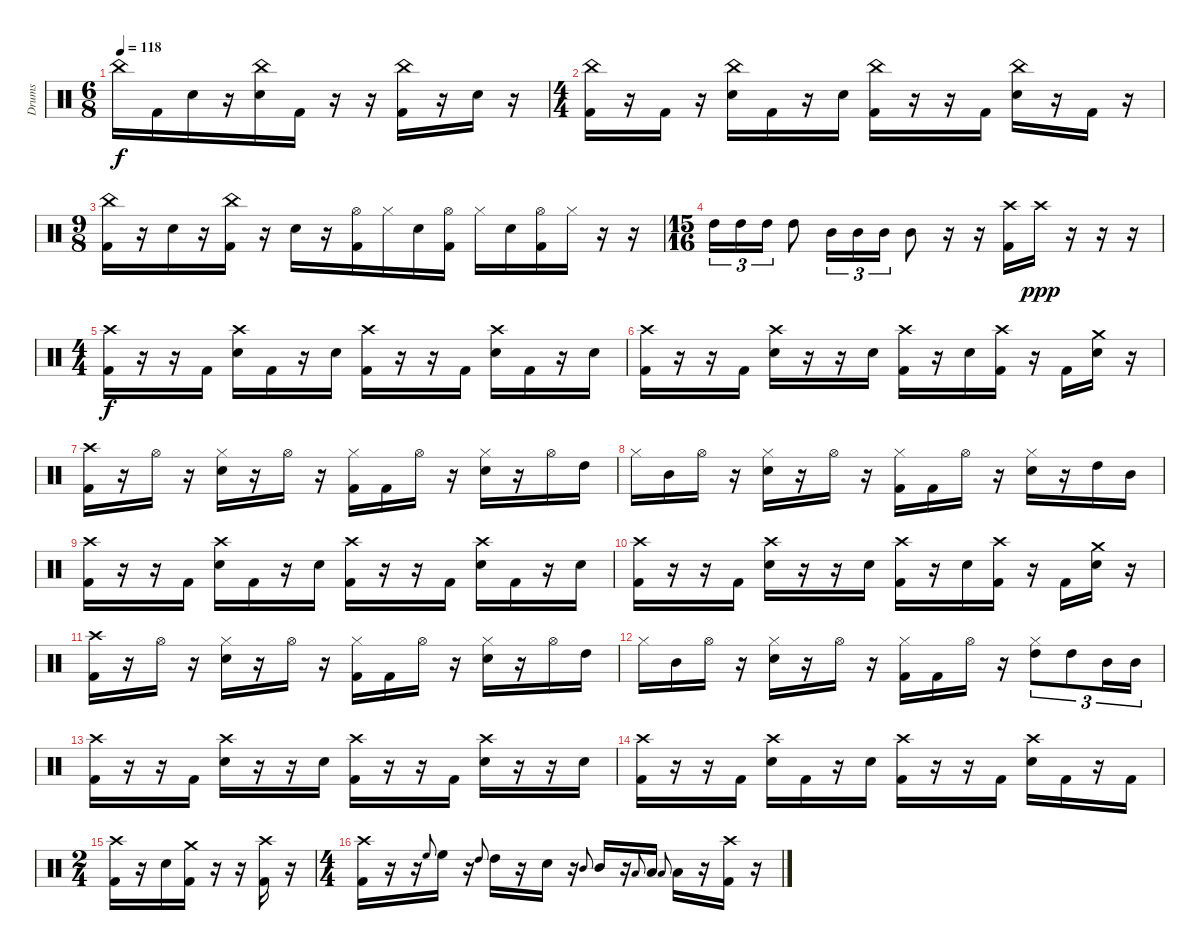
\track ("Drums" "Drums") {instrument percussion}
\staff {score}
\articulation defaults
\ts (6 8)
\tempo 118
\clef neutral
\ks c "China (hit)".16{dy f} "Kick (hit) 2".16 "Snare (hit) 2".16
r.16 ("Snare (hit) 2" "China (hit)").16 "Kick (hit) 2".16 r.16 r.16 ("Kick (hit) 2" "China (hit)").16 r.16 "Snare (hit) 2".16 r.16 |
\ts (4 4)
("Kick (hit) 2" "China (hit)").16 r.16 "Kick (hit) 2".16 r.16 ("Snare (hit) 2" "China (hit)").16 "Kick (hit) 2".16 r.16 "Snare (hit) 2".16 ("Kick (hit) 2" "China (hit)").16 r.16 r.16 "Kick (hit) 2".16 ("Snare (hit) 2" "China (hit)").16 r.16 "Kick (hit) 2".16 r.16 |
\ts (9 8)
("Kick (hit) 2" "China (hit)").16 r.16 "Snare (hit) 2".16 r.16 ("Kick (hit) 2" "China (hit)").16 r.16 "Snare (hit) 2".16 r.16 ("Kick (hit) 2" "Hi-Hat (open)").16 "Hi-Hat (closed)".16 "Snare (hit) 2".16 ("Hi-Hat (open)" "Kick (hit) 2").16 "Hi-Hat (closed)".16 "Snare (hit) 2".16 ("Hi-Hat (open)" "Kick (hit) 2").16 "Hi-Hat (closed)".16 r.16 r.16 |
\ts (15 16)
"High Tom (hit)".16{tu (3 2)} "High Tom (hit)".16{tu (3 2)} "High Tom (hit)".16{tu (3 2)} "High Tom (hit)".8 "Mid Tom (hit)".16{tu (3 2)} "Mid Tom (hit)".16{tu (3 2)} "Mid Tom (hit)".16{tu (3 2)} "Mid Tom (hit)".8 r.16 r.16 ("Kick (hit) 2" "Crash high (hit)").16 "Crash high (hit)".16{dy ppp} r.16 r.16 r.16 |
\ts (4 4)
("Kick (hit) 2" "Crash high (hit)").16{dy f} r.16 r.16 "Kick (hit) 2".16 ("Snare (hit) 2" "Crash high (hit)").16 "Kick (hit) 2".16 r.16 "Snare (hit) 2".16 ("Kick (hit) 2" "Crash high (hit)").16 r.16 r.16 "Kick (hit) 2".16 ("Snare (hit) 2" "Crash high (hit)").16 "Kick (hit) 2".16 r.16 "Snare (hit) 2".16 |
("Kick (hit) 2" "Crash high (hit)").16 r.16 r.16 "Kick (hit) 2".16 ("Snare (hit) 2" "Crash high (hit)").16 r.16 r.16 "Snare (hit) 2".16 ("Kick (hit) 2" "Crash high (hit)").16 r.16 "Snare (hit) 2".16 ("Kick (hit) 2" "Crash high (hit)").16 r.16 "Kick (hit) 2".16 ("Snare (hit) 2" "Crash medium (hit)").16 r.16 |
("Kick (hit) 2" "Crash high (hit)").16 r.16 "Hi-Hat (open)".16 r.16 ("Hi-Hat (closed)" "Snare (hit) 2").16 r.16 "Hi-Hat (open)".16 r.16 ("Hi-Hat (closed)" "Kick (hit) 2").16 "Kick (hit) 2".16 "Hi-Hat (open)".16 r.16 ("Snare (hit) 2" "Hi-Hat (closed)").16 r.16 "Hi-Hat (open)".16 "High Tom (hit)".16 |
"Hi-Hat (closed)".16 "Mid Tom (hit)".16 "Hi-Hat (open)".16 r.16 ("Hi-Hat (closed)" "Snare (hit) 2").16 r.16 "Hi-Hat (open)".16 r.16 ("Hi-Hat (closed)" "Kick (hit) 2").16 "Kick (hit) 2".16 "Hi-Hat (open)".16 r.16 ("Snare (hit) 2" "Hi-Hat (closed)").16 r.16 "High Tom (hit)".16 "Mid Tom (hit)".16 |
("Kick (hit) 2" "Crash high (hit)").16 r.16 r.16 "Kick (hit) 2".16 ("Snare (hit) 2" "Crash high (hit)").16 "Kick (hit) 2".16 r.16 "Snare (hit) 2".16 ("Kick (hit) 2" "Crash high (hit)").16 r.16 r.16 "Kick (hit) 2".16 ("Snare (hit) 2" "Crash high (hit)").16 "Kick (hit) 2".16 r.16 "Snare (hit) 2".16 |
("Kick (hit) 2" "Crash high (hit)").16 r.16 r.16 "Kick (hit) 2".16 ("Snare (hit) 2" "Crash high (hit)").16 r.16 r.16 "Snare (hit) 2".16 ("Kick (hit) 2" "Crash high (hit)").16 r.16 "Snare (hit) 2".16 ("Kick (hit) 2" "Crash high (hit)").16 r.16 "Kick (hit) 2".16 ("Snare (hit) 2" "Crash medium (hit)").16 r.16 |
("Kick (hit) 2" "Crash high (hit)").16 r.16 "Hi-Hat (open)".16 r.16 ("Hi-Hat (closed)" "Snare (hit) 2").16 r.16 "Hi-Hat (open)".16 r.16 ("Hi-Hat (closed)" "Kick (hit) 2").16 "Kick (hit) 2".16 "Hi-Hat (open)".16 r.16 ("Snare (hit) 2" "Hi-Hat (closed)").16 r.16 "Hi-Hat (open)".16 "High Tom (hit)".16 |
"Hi-Hat (closed)".16 "Mid Tom (hit)".16 "Hi-Hat (open)".16 r.16 ("Hi-Hat (closed)" "Snare (hit) 2").16 r.16 "Hi-Hat (open)".16 r.16 ("Hi-Hat (closed)" "Kick (hit) 2").16 "Kick (hit) 2".16 "Hi-Hat (open)".16 r.16 ("High Tom (hit)" "Hi-Hat (closed)").8{tu (3 2)} "High Tom (hit)".8{tu (3 2)} "Mid Tom (hit)".16{tu (3 2)} "Mid Tom (hit)".16{tu (3 2)} |
("Kick (hit) 2" "Crash high (hit)").16 r.16 r.16 "Kick (hit) 2".16 ("Snare (hit) 2" "Crash high (hit)").16 r.16 r.16 "Snare (hit) 2".16 ("Kick (hit) 2" "Crash high (hit)").16 r.16 r.16 "Kick (hit) 2".16 ("Snare (hit) 2" "Crash high (hit)").16 r.16 r.16 "Snare (hit) 2".16 |
("Kick (hit) 2" "Crash high (hit)").16 r.16 r.16 "Kick (hit) 2".16 ("Snare (hit) 2" "Crash high (hit)").16 "Kick (hit) 2".16 r.16 "Snare (hit) 2".16 ("Kick (hit) 2" "Crash high (hit)").16 r.16 r.16 "Kick (hit) 2".16 ("Snare (hit) 2" "Crash high (hit)").16 "Kick (hit) 2".16 r.16 "Kick (hit) 2".16 |
\ts (2 4)
("Kick (hit) 2" "Crash high (hit)").16 r.16 "Snare (hit) 2".16 ("Kick (hit) 2" "Crash medium (hit)").16 r.16 r.16 ("Kick (hit) 2" "Crash high (hit)").16 r.16 |
\ts (4 4)
("Kick (hit) 2" "Crash high (hit)").16 r.16 r.16 "High Floor Tom (hit)".8{gr onbeat} "High Floor Tom (hit)".16 r.16 "High Tom (hit)".8{gr onbeat} "High Tom (hit)".16 r.16 "Snare (hit) 2".16 r.16 "Mid Tom (hit)".8{gr onbeat} "Mid Tom (hit)".16 r.16 "Low Tom (hit)".8{gr onbeat} "Low Tom (hit)".16 "Low Tom (hit)".8{gr onbeat} "Low Tom (hit)".16 r.16 ("Kick (hit) 2" "Crash high (hit)").16 r.16
